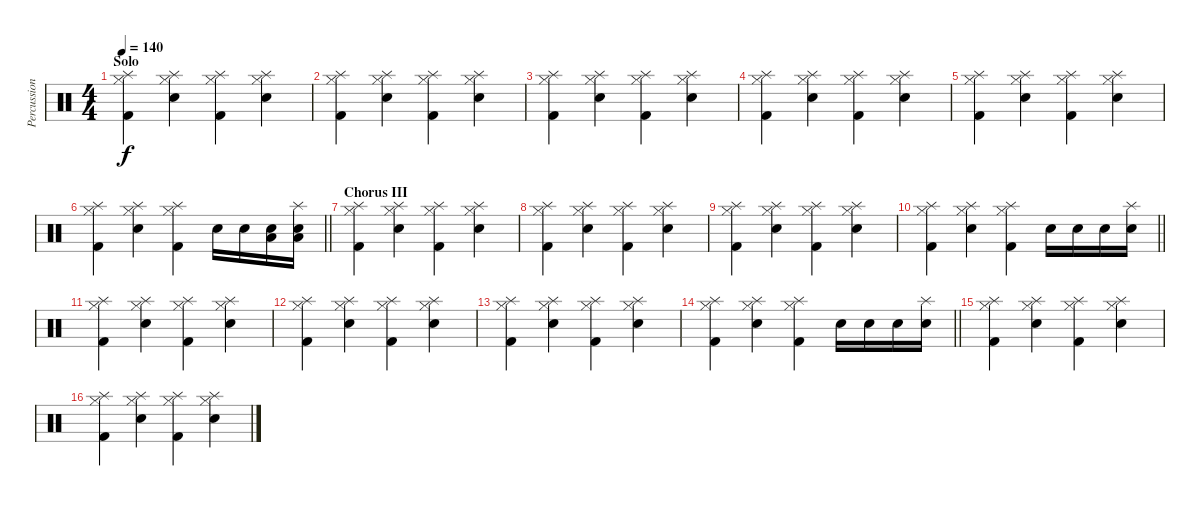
\track ("Percussion" "Percussion") {instrument percussion}
\staff {score}
\articulation defaults
\ts (4 4)
\section ("" "Solo")
\tempo 140
\clef neutral
\ks c
("Kick (hit) 2" "Hi-Hat (closed)" "Splash (hit)").4{dy f} ("Hi-Hat (closed)" "Electric Snare (hit)" "Splash (hit)").4 ("Kick (hit) 2" "Hi-Hat (closed)" "Splash (hit)").4 ("Hi-Hat (closed)" "Electric Snare (hit)" "Splash (hit)").4 |
("Kick (hit) 2" "Hi-Hat (closed)" "Splash (hit)").4 ("Hi-Hat (closed)" "Electric Snare (hit)" "Splash (hit)").4 ("Kick (hit) 2" "Hi-Hat (closed)" "Splash (hit)").4 ("Hi-Hat (closed)" "Electric Snare (hit)" "Splash (hit)").4 |
("Kick (hit) 2" "Hi-Hat (closed)" "Splash (hit)").4 ("Hi-Hat (closed)" "Electric Snare (hit)" "Splash (hit)").4 ("Kick (hit) 2" "Hi-Hat (closed)" "Splash (hit)").4 ("Hi-Hat (closed)" "Electric Snare (hit)" "Splash (hit)").4 |
("Kick (hit) 2" "Hi-Hat (closed)" "Splash (hit)").4 ("Hi-Hat (closed)" "Electric Snare (hit)" "Splash (hit)").4 ("Kick (hit) 2" "Hi-Hat (closed)" "Splash (hit)").4 ("Hi-Hat (closed)" "Electric Snare (hit)" "Splash (hit)").4 |
("Kick (hit) 2" "Hi-Hat (closed)" "Splash (hit)").4 ("Hi-Hat (closed)" "Electric Snare (hit)" "Splash (hit)").4 ("Kick (hit) 2" "Hi-Hat (closed)" "Splash (hit)").4 ("Hi-Hat (closed)" "Electric Snare (hit)" "Splash (hit)").4 |
\barLineRight lightlight
("Kick (hit) 2" "Hi-Hat (closed)" "Splash (hit)").4 ("Hi-Hat (closed)" "Electric Snare (hit)" "Splash (hit)").4 ("Kick (hit) 2" "Hi-Hat (closed)" "Splash (hit)").4 "Electric Snare (hit)".16 "Electric Snare (hit)".16 ("Electric Snare (hit)" "Low Tom (hit)").16 ("Electric Snare (hit)" "Low Tom (hit)" "Splash (hit)").16 |
\section ("" "Chorus III")
("Kick (hit) 2" "Hi-Hat (closed)" "Splash (hit)").4 ("Hi-Hat (closed)" "Electric Snare (hit)" "Splash (hit)").4 ("Kick (hit) 2" "Hi-Hat (closed)" "Splash (hit)").4 ("Hi-Hat (closed)" "Electric Snare (hit)" "Splash (hit)").4 |
("Kick (hit) 2" "Hi-Hat (closed)" "Splash (hit)").4 ("Hi-Hat (closed)" "Electric Snare (hit)" "Splash (hit)").4 ("Kick (hit) 2" "Hi-Hat (closed)" "Splash (hit)").4 ("Hi-Hat (closed)" "Electric Snare (hit)" "Splash (hit)").4 |
("Kick (hit) 2" "Hi-Hat (closed)" "Splash (hit)").4 ("Hi-Hat (closed)" "Electric Snare (hit)" "Splash (hit)").4 ("Kick (hit) 2" "Hi-Hat (closed)" "Splash (hit)").4 ("Hi-Hat (closed)" "Electric Snare (hit)" "Splash (hit)").4 |
\barLineRight lightlight
("Kick (hit) 2" "Hi-Hat (closed)" "Splash (hit)").4 ("Hi-Hat (closed)" "Electric Snare (hit)" "Splash (hit)").4 ("Kick (hit) 2" "Hi-Hat (closed)" "Splash (hit)").4 "Electric Snare (hit)".16 "Electric Snare (hit)".16 "Electric Snare (hit)".16 ("Electric Snare (hit)" "Splash (hit)").16 |
("Kick (hit) 2" "Hi-Hat (closed)" "Splash (hit)").4 ("Hi-Hat (closed)" "Electric Snare (hit)" "Splash (hit)").4 ("Kick (hit) 2" "Hi-Hat (closed)" "Splash (hit)").4 ("Hi-Hat (closed)" "Electric Snare (hit)" "Splash (hit)").4 |
("Kick (hit) 2" "Hi-Hat (closed)" "Splash (hit)").4 ("Hi-Hat (closed)" "Electric Snare (hit)" "Splash (hit)").4 ("Kick (hit) 2" "Hi-Hat (closed)" "Splash (hit)").4 ("Hi-Hat (closed)" "Electric Snare (hit)" "Splash (hit)").4 |
("Kick (hit) 2" "Hi-Hat (closed)" "Splash (hit)").4 ("Hi-Hat (closed)" "Electric Snare (hit)" "Splash (hit)").4 ("Kick (hit) 2" "Hi-Hat (closed)" "Splash (hit)").4 ("Hi-Hat (closed)" "Electric Snare (hit)" "Splash (hit)").4 |
\barLineRight lightlight
("Kick (hit) 2" "Hi-Hat (closed)" "Splash (hit)").4 ("Hi-Hat (closed)" "Electric Snare (hit)" "Splash (hit)").4 ("Kick (hit) 2" "Hi-Hat (closed)" "Splash (hit)").4 "Electric Snare (hit)".16 "Electric Snare (hit)".16 "Electric Snare (hit)".16 ("Electric Snare (hit)" "Splash (hit)").16 |
("Kick (hit) 2" "Hi-Hat (closed)" "Splash (hit)").4 ("Hi-Hat (closed)" "Electric Snare (hit)" "Splash (hit)").4 ("Kick (hit) 2" "Hi-Hat (closed)" "Splash (hit)").4 ("Hi-Hat (closed)" "Electric Snare (hit)" "Splash (hit)").4 |
("Kick (hit) 2" "Hi-Hat (closed)" "Splash (hit)").4 ("Hi-Hat (closed)" "Electric Snare (hit)" "Splash (hit)").4 ("Kick (hit) 2" "Hi-Hat (closed)" "Splash (hit)").4 ("Hi-Hat (closed)" "Electric Snare (hit)" "Splash (hit)").4
